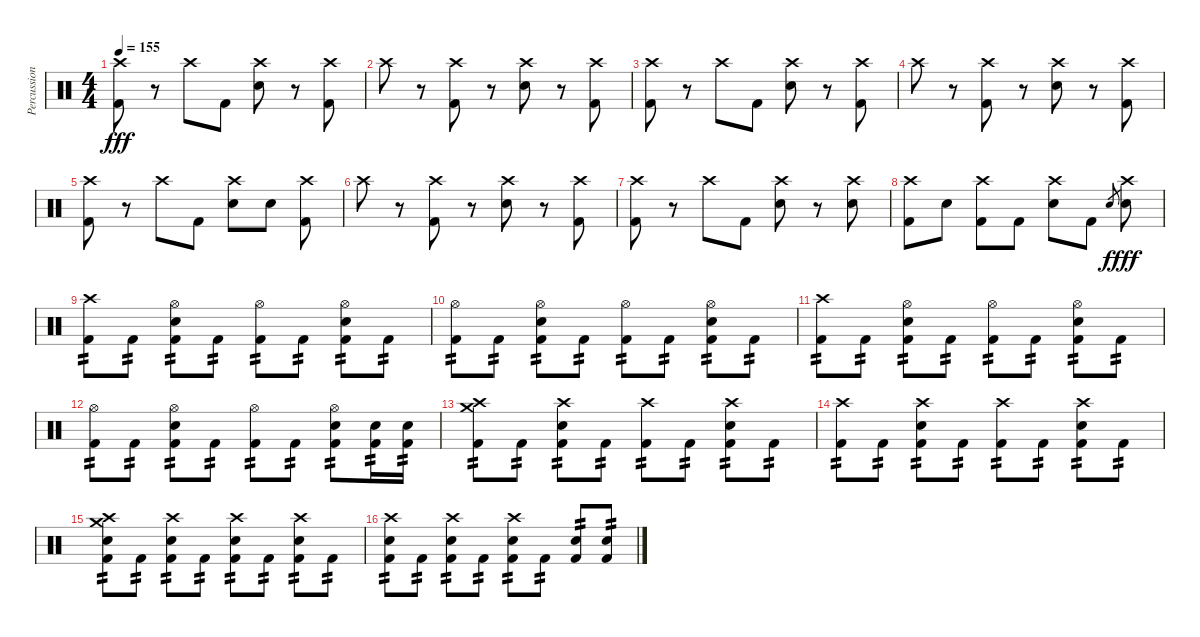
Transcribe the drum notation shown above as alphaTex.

\track ("Percussion" "Percussion") {instrument percussion}
\staff {score}
\articulation defaults
\ts (4 4)
\tempo 155
\clef neutral
\ks c
("Crash high (hit)" "Kick (hit) 2").8{dy fff} r.8 "Crash high (hit)".8 "Kick (hit) 2".8 ("Crash high (hit)" "Electric Snare (hit)").8 r.8 ("Crash high (hit)" "Kick (hit) 2").8 |
"Crash high (hit)".8 r.8 ("Crash high (hit)" "Kick (hit) 2").8 r.8 ("Crash high (hit)" "Electric Snare (hit)").8 r.8 ("Crash high (hit)" "Kick (hit) 2").8 |
("Crash high (hit)" "Kick (hit) 2").8 r.8 "Crash high (hit)".8 "Kick (hit) 2".8 ("Crash high (hit)" "Electric Snare (hit)").8 r.8 ("Crash high (hit)" "Kick (hit) 2").8 |
"Crash high (hit)".8 r.8 ("Crash high (hit)" "Kick (hit) 2").8 r.8 ("Crash high (hit)" "Electric Snare (hit)").8 r.8 ("Crash high (hit)" "Kick (hit) 2").8 |
("Crash high (hit)" "Kick (hit) 2").8 r.8 "Crash high (hit)".8 "Kick (hit) 2".8 ("Crash high (hit)" "Electric Snare (hit)").8 "Electric Snare (hit)".8 ("Crash high (hit)" "Kick (hit) 2").8 |
"Crash high (hit)".8 r.8 ("Crash high (hit)" "Kick (hit) 2").8 r.8 ("Crash high (hit)" "Electric Snare (hit)").8 r.8 ("Crash high (hit)" "Kick (hit) 2").8 |
("Crash high (hit)" "Kick (hit) 2").8 r.8 "Crash high (hit)".8 "Kick (hit) 2".8 ("Crash high (hit)" "Electric Snare (hit)").8 r.8 ("Crash high (hit)" "Electric Snare (hit)").8 |
("Crash high (hit)" "Kick (hit) 2").8 "Electric Snare (hit)".8 ("Crash high (hit)" "Kick (hit) 2").8 "Kick (hit) 2".8 ("Crash high (hit)" "Electric Snare (hit)").8 "Kick (hit) 2".8 "Electric Snare (hit)".8{gr dy f} ("Crash high (hit)" "Electric Snare (hit)").8{dy fff} |
("Crash high (hit)" "Kick (hit) 2").8{tp 2} "Kick (hit) 2".8{tp 2} ("Hi-Hat (open)" "Electric Snare (hit)" "Kick (hit) 2").8{tp 2} "Kick (hit) 2".8{tp 2} ("Hi-Hat (open)" "Kick (hit) 2").8{tp 2} "Kick (hit) 2".8{tp 2} ("Hi-Hat (open)" "Electric Snare (hit)" "Kick (hit) 2").8{tp 2} "Kick (hit) 2".8{tp 2} |
("Hi-Hat (open)" "Kick (hit) 2").8{tp 2} "Kick (hit) 2".8{tp 2} ("Hi-Hat (open)" "Electric Snare (hit)" "Kick (hit) 2").8{tp 2} "Kick (hit) 2".8{tp 2} ("Hi-Hat (open)" "Kick (hit) 2").8{tp 2} "Kick (hit) 2".8{tp 2} ("Hi-Hat (open)" "Electric Snare (hit)" "Kick (hit) 2").8{tp 2} "Kick (hit) 2".8{tp 2} |
("Crash high (hit)" "Kick (hit) 2").8{tp 2} "Kick (hit) 2".8{tp 2} ("Hi-Hat (open)" "Electric Snare (hit)" "Kick (hit) 2").8{tp 2} "Kick (hit) 2".8{tp 2} ("Hi-Hat (open)" "Kick (hit) 2").8{tp 2} "Kick (hit) 2".8{tp 2} ("Hi-Hat (open)" "Electric Snare (hit)" "Kick (hit) 2").8{tp 2} "Kick (hit) 2".8{tp 2} |
("Hi-Hat (open)" "Kick (hit) 2").8{tp 2} "Kick (hit) 2".8{tp 2} ("Hi-Hat (open)" "Electric Snare (hit)" "Kick (hit) 2").8{tp 2} "Kick (hit) 2".8{tp 2} ("Hi-Hat (open)" "Kick (hit) 2").8{tp 2} "Kick (hit) 2".8{tp 2} ("Hi-Hat (open)" "Electric Snare (hit)" "Kick (hit) 2").8{tp 2} ("Electric Snare (hit)" "Kick (hit) 2").16{tp 2} ("Electric Snare (hit)" "Kick (hit) 2").16{tp 2} |
("Crash high (hit)" "Crash medium (hit)" "Kick (hit) 2").8{tp 2} "Kick (hit) 2".8{tp 2} ("Crash high (hit)" "Electric Snare (hit)" "Kick (hit) 2").8{tp 2} "Kick (hit) 2".8{tp 2} ("Crash high (hit)" "Kick (hit) 2").8{tp 2} "Kick (hit) 2".8{tp 2} ("Crash high (hit)" "Electric Snare (hit)" "Kick (hit) 2").8{tp 2} "Kick (hit) 2".8{tp 2} |
("Crash high (hit)" "Kick (hit) 2").8{tp 2} "Kick (hit) 2".8{tp 2} ("Crash high (hit)" "Electric Snare (hit)" "Kick (hit) 2").8{tp 2} "Kick (hit) 2".8{tp 2} ("Crash high (hit)" "Kick (hit) 2").8{tp 2} "Kick (hit) 2".8{tp 2} ("Crash high (hit)" "Electric Snare (hit)" "Kick (hit) 2").8{tp 2} "Kick (hit) 2".8{tp 2} |
("Crash high (hit)" "Crash medium (hit)" "Electric Snare (hit)" "Kick (hit) 2").8{tp 2} "Kick (hit) 2".8{tp 2} ("Crash high (hit)" "Electric Snare (hit)" "Kick (hit) 2").8{tp 2} "Kick (hit) 2".8{tp 2} ("Crash high (hit)" "Electric Snare (hit)" "Kick (hit) 2").8{tp 2} "Kick (hit) 2".8{tp 2} ("Crash high (hit)" "Electric Snare (hit)" "Kick (hit) 2").8{tp 2} "Kick (hit) 2".8{tp 2} |
("Crash high (hit)" "Electric Snare (hit)" "Kick (hit) 2").8{tp 2} "Kick (hit) 2".8{tp 2} ("Crash high (hit)" "Electric Snare (hit)" "Kick (hit) 2").8{tp 2} "Kick (hit) 2".8{tp 2} ("Crash high (hit)" "Electric Snare (hit)" "Kick (hit) 2").8{tp 2} "Kick (hit) 2".8{tp 2} ("Electric Snare (hit)" "Kick (hit) 2").8{tp 2} ("Electric Snare (hit)" "Kick (hit) 2").8{tp 2}
